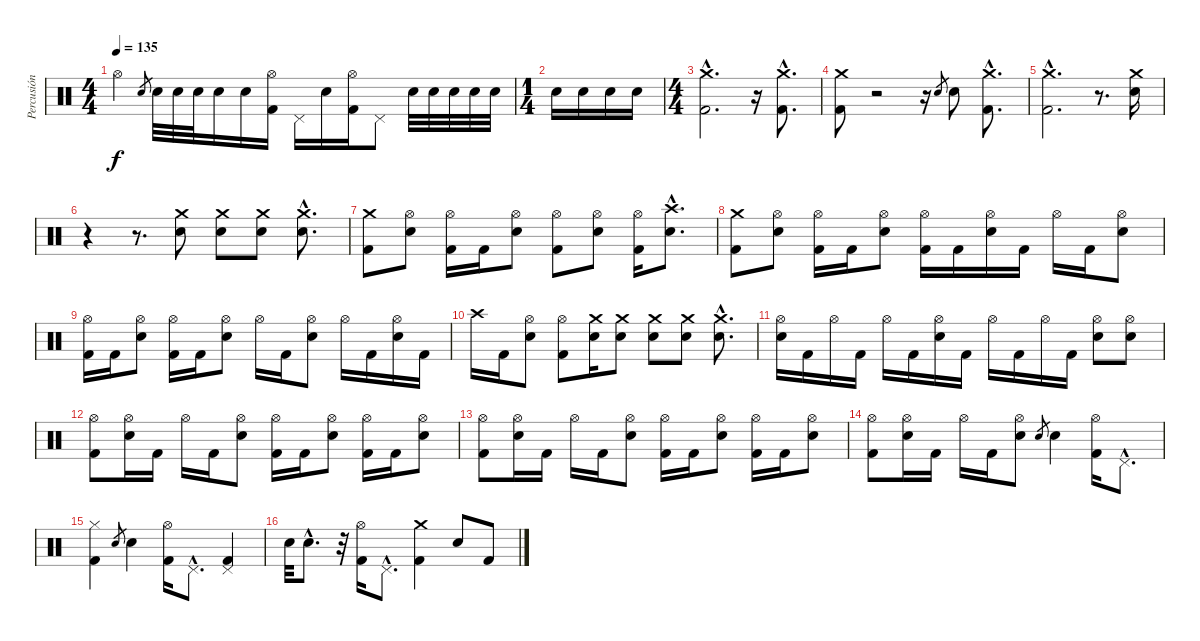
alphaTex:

\track ("Percusión" "Percusión") {instrument percussion}
\staff {score}
\articulation defaults
\ts (4 4)
\tempo 135
\clef neutral
\ks c "Hi-Hat (open)".4{dy f} "Electric Snare (hit)".8{gr} "Electric Snare (hit)".32 "Electric Snare (hit)".32 "Electric Snare (hit)".32 "Electric Snare (hit)".16 "Electric Snare (hit)".16
("Hi-Hat (open)" "Kick (hit) 2").16 "Pedal Hi-Hat (hit)".16 "Electric Snare (hit)".16 ("Hi-Hat (open)" "Kick (hit) 2").16 "Pedal Hi-Hat (hit)".8 "Electric Snare (hit)".32 "Electric Snare (hit)".32 "Electric Snare (hit)".32 "Electric Snare (hit)".32 "Electric Snare (hit)".32 |
\ts (1 4)
"Electric Snare (hit)".16 "Electric Snare (hit)".16 "Electric Snare (hit)".16 "Electric Snare (hit)".16 |
\ts (4 4)
("Crash medium (hit)"{hac} "Kick (hit) 2"{hac}).2{d} r.16 ("Crash medium (hit)"{hac} "Kick (hit) 2"{hac}).8{d} |
("Crash medium (hit)" "Kick (hit) 2").8 r.2 r.16 "Electric Snare (hit)".8{gr} "Electric Snare (hit)".8 ("Crash medium (hit)"{hac} "Kick (hit) 2"{hac}).8{d} |
("Crash medium (hit)"{hac} "Kick (hit) 2"{hac}).2{d} r.8{d} ("Crash medium (hit)" "Electric Snare (hit)").16 |
r.4 r.8{d} ("Crash medium (hit)" "Electric Snare (hit)").8 ("Crash medium (hit)" "Electric Snare (hit)").8 ("Crash medium (hit)" "Electric Snare (hit)").8 ("Crash medium (hit)"{hac} "Electric Snare (hit)"{hac}).8{d} |
("Crash medium (hit)" "Kick (hit) 2").8 ("Hi-Hat (open)" "Electric Snare (hit)").8 ("Hi-Hat (open)" "Kick (hit) 2").16 "Kick (hit) 2".16 ("Hi-Hat (open)" "Electric Snare (hit)").8 ("Hi-Hat (open)" "Kick (hit) 2").8 ("Hi-Hat (open)" "Electric Snare (hit)").8 ("Hi-Hat (open)" "Kick (hit) 2").16 ("Crash high (hit)"{hac} "Electric Snare (hit)"{hac}).8{d} |
("Crash medium (hit)" "Kick (hit) 2").8 ("Hi-Hat (open)" "Electric Snare (hit)").8 ("Hi-Hat (open)" "Kick (hit) 2").16 "Kick (hit) 2".16 ("Hi-Hat (open)" "Electric Snare (hit)").8 ("Hi-Hat (open)" "Kick (hit) 2").16 "Kick (hit) 2".16 ("Hi-Hat (open)" "Electric Snare (hit)").16 "Kick (hit) 2".16 "Hi-Hat (open)".16 "Kick (hit) 2".16 ("Hi-Hat (open)" "Electric Snare (hit)").8 |
("Hi-Hat (open)" "Kick (hit) 2").16 "Kick (hit) 2".16 ("Hi-Hat (open)" "Electric Snare (hit)").8 ("Hi-Hat (open)" "Kick (hit) 2").16 "Kick (hit) 2".16 ("Hi-Hat (open)" "Electric Snare (hit)").8 "Hi-Hat (open)".16 "Kick (hit) 2".16 ("Hi-Hat (open)" "Electric Snare (hit)").8 "Hi-Hat (open)".16 "Kick (hit) 2".16 ("Hi-Hat (open)" "Electric Snare (hit)").16 "Kick (hit) 2".16 |
"Crash high (hit)".16 "Kick (hit) 2".16 ("Hi-Hat (open)" "Electric Snare (hit)").8 ("Hi-Hat (open)" "Kick (hit) 2").8 ("Crash medium (hit)" "Electric Snare (hit)").16 ("Crash medium (hit)" "Electric Snare (hit)").8 ("Crash medium (hit)" "Electric Snare (hit)").8 ("Crash medium (hit)" "Electric Snare (hit)").8 ("Crash medium (hit)"{hac} "Electric Snare (hit)"{hac}).8{d} |
("Hi-Hat (open)" "Electric Snare (hit)").16 "Kick (hit) 2".16 "Hi-Hat (open)".16 "Kick (hit) 2".16 "Hi-Hat (open)".16 "Kick (hit) 2".16 ("Hi-Hat (open)" "Electric Snare (hit)").16 "Kick (hit) 2".16 "Hi-Hat (open)".16 "Kick (hit) 2".16 "Hi-Hat (open)".16 "Kick (hit) 2".16 ("Hi-Hat (open)" "Electric Snare (hit)").8 ("Hi-Hat (open)" "Electric Snare (hit)").8 |
("Hi-Hat (open)" "Kick (hit) 2").8 ("Hi-Hat (open)" "Electric Snare (hit)").16 "Kick (hit) 2".16 "Hi-Hat (open)".16 "Kick (hit) 2".16 ("Hi-Hat (open)" "Electric Snare (hit)").8 ("Hi-Hat (open)" "Kick (hit) 2").16 "Kick (hit) 2".16 ("Hi-Hat (open)" "Electric Snare (hit)").8 ("Hi-Hat (open)" "Kick (hit) 2").16 "Kick (hit) 2".16 ("Hi-Hat (open)" "Electric Snare (hit)").8 |
("Hi-Hat (open)" "Kick (hit) 2").8 ("Hi-Hat (open)" "Electric Snare (hit)").16 "Kick (hit) 2".16 "Hi-Hat (open)".16 "Kick (hit) 2".16 ("Hi-Hat (open)" "Electric Snare (hit)").8 ("Hi-Hat (open)" "Kick (hit) 2").16 "Kick (hit) 2".16 ("Hi-Hat (open)" "Electric Snare (hit)").8 ("Hi-Hat (open)" "Kick (hit) 2").16 "Kick (hit) 2".16 ("Hi-Hat (open)" "Electric Snare (hit)").8 |
("Hi-Hat (open)" "Kick (hit) 2").8 ("Hi-Hat (open)" "Electric Snare (hit)").16 "Kick (hit) 2".16 "Hi-Hat (open)".16 "Kick (hit) 2".16 ("Hi-Hat (open)" "Electric Snare (hit)").8 "Electric Snare (hit)".8{gr} "Electric Snare (hit)".4 ("Hi-Hat (open)" "Kick (hit) 2").16 "Pedal Hi-Hat (hit)"{hac}.8{d} |
("Hi-Hat (closed)" "Kick (hit) 2").4 "Electric Snare (hit)".8{gr} "Electric Snare (hit)".4 ("Hi-Hat (open)" "Kick (hit) 2").16 "Pedal Hi-Hat (hit)"{hac}.8{d} ("Pedal Hi-Hat (hit)" "Kick (hit) 2").4 |
"Electric Snare (hit)".32 "Electric Snare (hit)"{hac}.8{d} r.32 ("Hi-Hat (open)" "Kick (hit) 2").16 "Pedal Hi-Hat (hit)"{hac}.8{d} ("Crash medium (hit)" "Kick (hit) 2").4 "Electric Snare (hit)".8 "Kick (hit) 2".8
